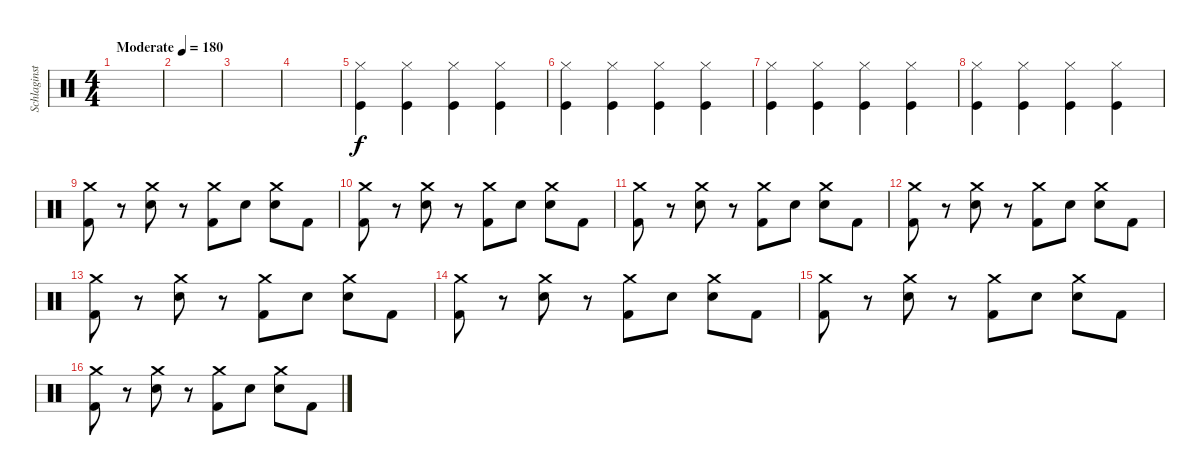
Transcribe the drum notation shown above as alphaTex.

\track ("Schlaginstrumente - Auswahl" "Schlaginst") {instrument percussion}
\staff {score}
\articulation defaults
\ts (4 4)
\tempo (180 "Moderate")
\clef neutral
\ks c
|
|
|
|
("Hi-Hat (closed)" "Kick (hit)").4 ("Hi-Hat (closed)" "Kick (hit)").4 ("Hi-Hat (closed)" "Kick (hit)").4 ("Hi-Hat (closed)" "Kick (hit)").4 |
("Hi-Hat (closed)" "Kick (hit)").4 ("Hi-Hat (closed)" "Kick (hit)").4 ("Hi-Hat (closed)" "Kick (hit)").4 ("Hi-Hat (closed)" "Kick (hit)").4 |
("Hi-Hat (closed)" "Kick (hit)").4 ("Hi-Hat (closed)" "Kick (hit)").4 ("Hi-Hat (closed)" "Kick (hit)").4 ("Hi-Hat (closed)" "Kick (hit)").4 |
("Hi-Hat (closed)" "Kick (hit)").4 ("Hi-Hat (closed)" "Kick (hit)").4 ("Hi-Hat (closed)" "Kick (hit)").4 ("Hi-Hat (closed)" "Kick (hit)").4 |
("Crash medium (hit)" "Kick (hit) 2").8 r.8 ("Crash medium (hit)" "Snare (hit) 2").8 r.8 ("Crash medium (hit)" "Kick (hit) 2").8 "Snare (hit) 2".8 ("Crash medium (hit)" "Snare (hit) 2").8 "Kick (hit) 2".8 |
("Crash medium (hit)" "Kick (hit) 2").8 r.8 ("Crash medium (hit)" "Snare (hit) 2").8 r.8 ("Crash medium (hit)" "Kick (hit) 2").8 "Snare (hit) 2".8 ("Crash medium (hit)" "Snare (hit) 2").8 "Kick (hit) 2".8 |
("Crash medium (hit)" "Kick (hit) 2").8 r.8 ("Crash medium (hit)" "Snare (hit) 2").8 r.8 ("Crash medium (hit)" "Kick (hit) 2").8 "Snare (hit) 2".8 ("Crash medium (hit)" "Snare (hit) 2").8 "Kick (hit) 2".8 |
("Crash medium (hit)" "Kick (hit) 2").8 r.8 ("Crash medium (hit)" "Snare (hit) 2").8 r.8 ("Crash medium (hit)" "Kick (hit) 2").8 "Snare (hit) 2".8 ("Crash medium (hit)" "Snare (hit) 2").8 "Kick (hit) 2".8 |
("Crash medium (hit)" "Kick (hit) 2").8 r.8 ("Crash medium (hit)" "Snare (hit) 2").8 r.8 ("Crash medium (hit)" "Kick (hit) 2").8 "Snare (hit) 2".8 ("Crash medium (hit)" "Snare (hit) 2").8 "Kick (hit) 2".8 |
("Crash medium (hit)" "Kick (hit) 2").8 r.8 ("Crash medium (hit)" "Snare (hit) 2").8 r.8 ("Crash medium (hit)" "Kick (hit) 2").8 "Snare (hit) 2".8 ("Crash medium (hit)" "Snare (hit) 2").8 "Kick (hit) 2".8 |
("Crash medium (hit)" "Kick (hit) 2").8 r.8 ("Crash medium (hit)" "Snare (hit) 2").8 r.8 ("Crash medium (hit)" "Kick (hit) 2").8 "Snare (hit) 2".8 ("Crash medium (hit)" "Snare (hit) 2").8 "Kick (hit) 2".8 |
("Crash medium (hit)" "Kick (hit) 2").8 r.8 ("Crash medium (hit)" "Snare (hit) 2").8 r.8 ("Crash medium (hit)" "Kick (hit) 2").8 "Snare (hit) 2".8 ("Crash medium (hit)" "Snare (hit) 2").8 "Kick (hit) 2".8
